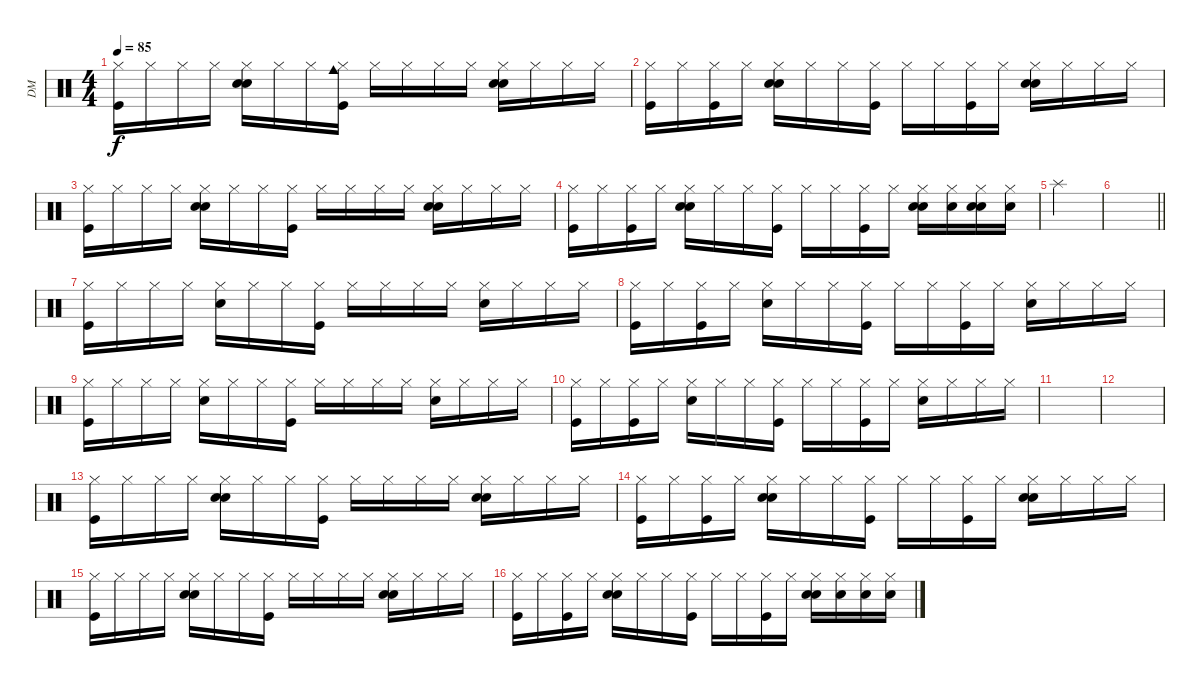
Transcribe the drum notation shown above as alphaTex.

\track ("DM" "DM") {instrument percussion}
\staff {score}
\articulation defaults
\ts (4 4)
\tempo 85
\clef neutral
\ks c
("Hi-Hat (closed)" "Kick (hit)").16{dy f} "Hi-Hat (closed)".16 "Hi-Hat (closed)".16 "Hi-Hat (closed)".16 ("Hi-Hat (closed)" "Electric Snare (hit)" "Hand Clap (hit)").16 "Hi-Hat (closed)".16 "Hi-Hat (closed)".16 ("Hi-Hat (closed)" "Kick (hit)" "Cowbell medium (hit)").16 "Hi-Hat (closed)".16 "Hi-Hat (closed)".16 "Hi-Hat (closed)".16 "Hi-Hat (closed)".16 ("Hi-Hat (closed)" "Electric Snare (hit)" "Hand Clap (hit)").16 "Hi-Hat (closed)".16 "Hi-Hat (closed)".16 "Hi-Hat (closed)".16 |
("Hi-Hat (closed)" "Kick (hit)").16 "Hi-Hat (closed)".16 ("Hi-Hat (closed)" "Kick (hit)").16 "Hi-Hat (closed)".16 ("Hi-Hat (closed)" "Electric Snare (hit)" "Hand Clap (hit)").16 "Hi-Hat (closed)".16 "Hi-Hat (closed)".16 ("Hi-Hat (closed)" "Kick (hit)").16 "Hi-Hat (closed)".16 "Hi-Hat (closed)".16 ("Hi-Hat (closed)" "Kick (hit)").16 "Hi-Hat (closed)".16 ("Hi-Hat (closed)" "Electric Snare (hit)" "Hand Clap (hit)").16 "Hi-Hat (closed)".16 "Hi-Hat (closed)".16 "Hi-Hat (closed)".16 |
("Hi-Hat (closed)" "Kick (hit)").16 "Hi-Hat (closed)".16 "Hi-Hat (closed)".16 "Hi-Hat (closed)".16 ("Hi-Hat (closed)" "Electric Snare (hit)" "Hand Clap (hit)").16 "Hi-Hat (closed)".16 "Hi-Hat (closed)".16 ("Hi-Hat (closed)" "Kick (hit)").16 "Hi-Hat (closed)".16 "Hi-Hat (closed)".16 "Hi-Hat (closed)".16 "Hi-Hat (closed)".16 ("Hi-Hat (closed)" "Electric Snare (hit)" "Hand Clap (hit)").16 "Hi-Hat (closed)".16 "Hi-Hat (closed)".16 "Hi-Hat (closed)".16 |
("Hi-Hat (closed)" "Kick (hit)").16 "Hi-Hat (closed)".16 ("Hi-Hat (closed)" "Kick (hit)").16 "Hi-Hat (closed)".16 ("Hi-Hat (closed)" "Electric Snare (hit)" "Hand Clap (hit)").16 "Hi-Hat (closed)".16 "Hi-Hat (closed)".16 ("Hi-Hat (closed)" "Kick (hit)").16 "Hi-Hat (closed)".16 "Hi-Hat (closed)".16 ("Hi-Hat (closed)" "Kick (hit)").16 "Hi-Hat (closed)".16 ("Hi-Hat (closed)" "Electric Snare (hit)" "Hand Clap (hit)").16 ("Hi-Hat (closed)" "Hand Clap (hit)").16 ("Hi-Hat (closed)" "Hand Clap (hit)" "Hand Clap (hit)").16 ("Hi-Hat (closed)" "Hand Clap (hit)").16 |
"Splash (hit)".4 |
\barLineRight lightlight
|
("Hi-Hat (closed)" "Kick (hit)").16 "Hi-Hat (closed)".16 "Hi-Hat (closed)".16 "Hi-Hat (closed)".16 ("Hi-Hat (closed)" "Electric Snare (hit)").16 "Hi-Hat (closed)".16 "Hi-Hat (closed)".16 ("Hi-Hat (closed)" "Kick (hit)").16 "Hi-Hat (closed)".16 "Hi-Hat (closed)".16 "Hi-Hat (closed)".16 "Hi-Hat (closed)".16 ("Hi-Hat (closed)" "Electric Snare (hit)").16 "Hi-Hat (closed)".16 "Hi-Hat (closed)".16 "Hi-Hat (closed)".16 |
("Hi-Hat (closed)" "Kick (hit)").16 "Hi-Hat (closed)".16 ("Hi-Hat (closed)" "Kick (hit)").16 "Hi-Hat (closed)".16 ("Hi-Hat (closed)" "Electric Snare (hit)").16 "Hi-Hat (closed)".16 "Hi-Hat (closed)".16 ("Hi-Hat (closed)" "Kick (hit)").16 "Hi-Hat (closed)".16 "Hi-Hat (closed)".16 ("Hi-Hat (closed)" "Kick (hit)").16 "Hi-Hat (closed)".16 ("Hi-Hat (closed)" "Electric Snare (hit)").16 "Hi-Hat (closed)".16 "Hi-Hat (closed)".16 "Hi-Hat (closed)".16 |
("Hi-Hat (closed)" "Kick (hit)").16 "Hi-Hat (closed)".16 "Hi-Hat (closed)".16 "Hi-Hat (closed)".16 ("Hi-Hat (closed)" "Electric Snare (hit)").16 "Hi-Hat (closed)".16 "Hi-Hat (closed)".16 ("Hi-Hat (closed)" "Kick (hit)").16 "Hi-Hat (closed)".16 "Hi-Hat (closed)".16 "Hi-Hat (closed)".16 "Hi-Hat (closed)".16 ("Hi-Hat (closed)" "Electric Snare (hit)").16 "Hi-Hat (closed)".16 "Hi-Hat (closed)".16 "Hi-Hat (closed)".16 |
("Hi-Hat (closed)" "Kick (hit)").16 "Hi-Hat (closed)".16 ("Hi-Hat (closed)" "Kick (hit)").16 "Hi-Hat (closed)".16 ("Hi-Hat (closed)" "Electric Snare (hit)").16 "Hi-Hat (closed)".16 "Hi-Hat (closed)".16 ("Hi-Hat (closed)" "Kick (hit)").16 "Hi-Hat (closed)".16 "Hi-Hat (closed)".16 ("Hi-Hat (closed)" "Kick (hit)").16 "Hi-Hat (closed)".16 ("Hi-Hat (closed)" "Electric Snare (hit)").16 "Hi-Hat (closed)".16 "Hi-Hat (closed)".16 "Hi-Hat (closed)".16 |
|
|
("Hi-Hat (closed)" "Kick (hit)").16 "Hi-Hat (closed)".16 "Hi-Hat (closed)".16 "Hi-Hat (closed)".16 ("Hi-Hat (closed)" "Electric Snare (hit)" "Hand Clap (hit)").16 "Hi-Hat (closed)".16 "Hi-Hat (closed)".16 ("Hi-Hat (closed)" "Kick (hit)").16 "Hi-Hat (closed)".16 "Hi-Hat (closed)".16 "Hi-Hat (closed)".16 "Hi-Hat (closed)".16 ("Hi-Hat (closed)" "Electric Snare (hit)" "Hand Clap (hit)").16 "Hi-Hat (closed)".16 "Hi-Hat (closed)".16 "Hi-Hat (closed)".16 |
("Hi-Hat (closed)" "Kick (hit)").16 "Hi-Hat (closed)".16 ("Hi-Hat (closed)" "Kick (hit)").16 "Hi-Hat (closed)".16 ("Hi-Hat (closed)" "Electric Snare (hit)" "Hand Clap (hit)").16 "Hi-Hat (closed)".16 "Hi-Hat (closed)".16 ("Hi-Hat (closed)" "Kick (hit)").16 "Hi-Hat (closed)".16 "Hi-Hat (closed)".16 ("Hi-Hat (closed)" "Kick (hit)").16 "Hi-Hat (closed)".16 ("Hi-Hat (closed)" "Hand Clap (hit)" "Hand Clap (hit)").16 "Hi-Hat (closed)".16 "Hi-Hat (closed)".16 "Hi-Hat (closed)".16 |
("Hi-Hat (closed)" "Kick (hit)").16 "Hi-Hat (closed)".16 "Hi-Hat (closed)".16 "Hi-Hat (closed)".16 ("Hi-Hat (closed)" "Electric Snare (hit)" "Hand Clap (hit)").16 "Hi-Hat (closed)".16 "Hi-Hat (closed)".16 ("Hi-Hat (closed)" "Kick (hit)").16 "Hi-Hat (closed)".16 "Hi-Hat (closed)".16 "Hi-Hat (closed)".16 "Hi-Hat (closed)".16 ("Hi-Hat (closed)" "Electric Snare (hit)" "Hand Clap (hit)").16 "Hi-Hat (closed)".16 "Hi-Hat (closed)".16 "Hi-Hat (closed)".16 |
("Hi-Hat (closed)" "Kick (hit)").16 "Hi-Hat (closed)".16 ("Hi-Hat (closed)" "Kick (hit)").16 "Hi-Hat (closed)".16 ("Hi-Hat (closed)" "Electric Snare (hit)" "Hand Clap (hit)").16 "Hi-Hat (closed)".16 "Hi-Hat (closed)".16 ("Hi-Hat (closed)" "Kick (hit)").16 "Hi-Hat (closed)".16 "Hi-Hat (closed)".16 ("Hi-Hat (closed)" "Kick (hit)").16 "Hi-Hat (closed)".16 ("Hi-Hat (closed)" "Electric Snare (hit)" "Hand Clap (hit)").16 ("Hi-Hat (closed)" "Hand Clap (hit)").16 ("Hi-Hat (closed)" "Hand Clap (hit)").16 ("Hi-Hat (closed)" "Hand Clap (hit)").16
